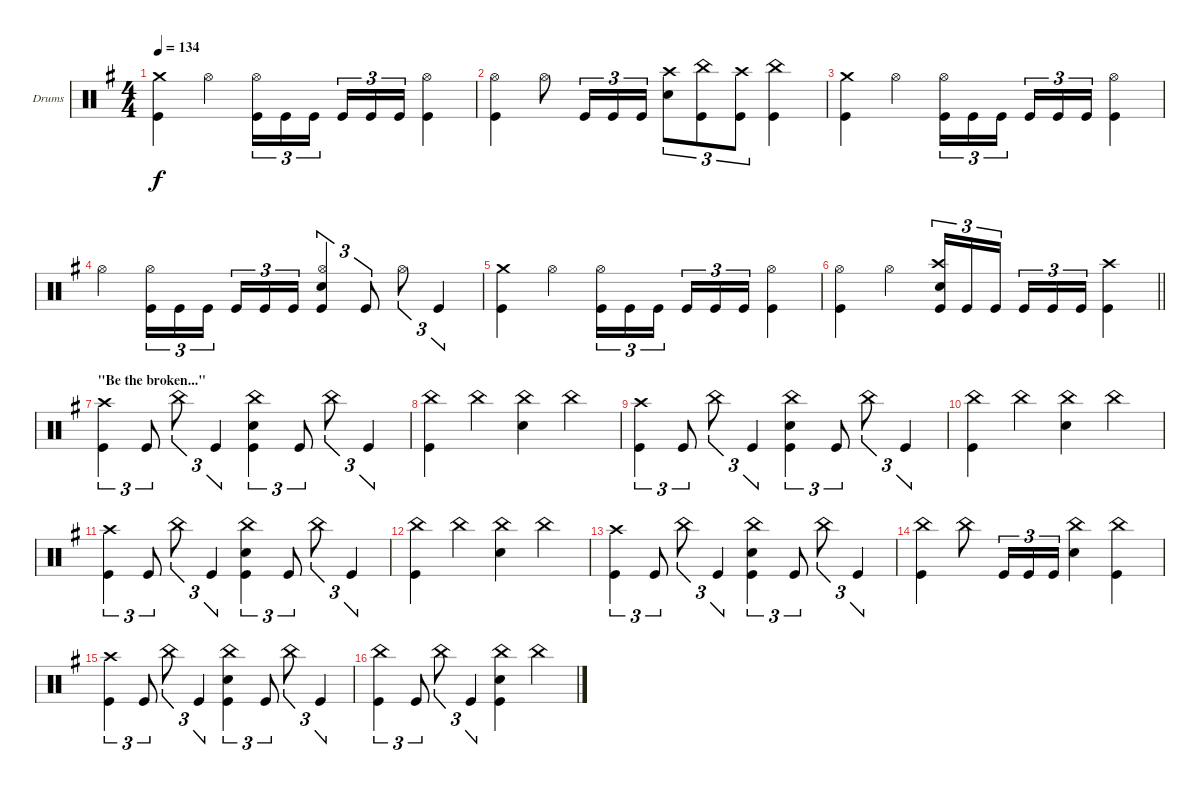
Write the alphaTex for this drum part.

\bracketExtendMode groupsimilarinstruments
\firstSystemTrackNameOrientation horizontal
\otherSystemsTrackNameOrientation horizontal
\track ("Drumkit" "Drums") {instrument percussion}
\staff {score}
\articulation defaults
\ts (4 4)
\tempo 134
\clef neutral
\scale
0.470852
\ks g
("Crash medium (hit)" "Kick (hit)").4{dy f} "Hi-Hat (open)".4 ("Hi-Hat (open)" "Kick (hit)").16{tu (3 2)} "Kick (hit)".16{tu (3 2)} "Kick (hit)".16{tu (3 2)} "Kick (hit)".16{tu (3 2)} "Kick (hit)".16{tu (3 2)} "Kick (hit)".16{tu (3 2)} ("Hi-Hat (open)" "Kick (hit)").4 |
\scale
0.505882 ("Hi-Hat (open)" "Kick (hit)").4 "Hi-Hat (open)".8 "Kick (hit)".16{tu (3 2)} "Kick (hit)".16{tu (3 2)} "Kick (hit)".16{tu (3 2)} ("Crash high (hit)" "Snare (hit) 2").8{tu (3 2)} ("China (hit)" "Kick (hit)").8{tu (3 2)} ("Crash high (hit)" "Kick (hit)").8{tu (3 2)} ("China (hit)" "Kick (hit)").4 |
\scale
0.494118 ("Crash medium (hit)" "Kick (hit)").4 "Hi-Hat (open)".4 ("Hi-Hat (open)" "Kick (hit)").16{tu (3 2)} "Kick (hit)".16{tu (3 2)} "Kick (hit)".16{tu (3 2)} "Kick (hit)".16{tu (3 2)} "Kick (hit)".16{tu (3 2)} "Kick (hit)".16{tu (3 2)} ("Hi-Hat (open)" "Kick (hit)").4 |
\scale
0.529148 "Hi-Hat (open)".4 ("Hi-Hat (open)" "Kick (hit)").16{tu (3 2)} "Kick (hit)".16{tu (3 2)} "Kick (hit)".16{tu (3 2)} "Kick (hit)".16{tu (3 2)} "Kick (hit)".16{tu (3 2)} "Kick (hit)".16{tu (3 2)} ("Hi-Hat (open)" "Snare (hit) 2" "Kick (hit)").4{tu (3 2)} "Kick (hit)".8{tu (3 2)} "Hi-Hat (open)".8{tu (3 2)} "Kick (hit)".4{tu (3 2)} |
\scale
0.470852 ("Crash medium (hit)" "Kick (hit)").4 "Hi-Hat (open)".4 ("Hi-Hat (open)" "Kick (hit)").16{tu (3 2)} "Kick (hit)".16{tu (3 2)} "Kick (hit)".16{tu (3 2)} "Kick (hit)".16{tu (3 2)} "Kick (hit)".16{tu (3 2)} "Kick (hit)".16{tu (3 2)} ("Hi-Hat (open)" "Kick (hit)").4 |
\scale
0.527638
\barLineRight lightlight
("Hi-Hat (open)" "Kick (hit)").4 "Hi-Hat (open)".4 ("Crash high (hit)" "Snare (hit) 2" "Kick (hit)").16{tu (3 2)} "Kick (hit)".16{tu (3 2)} "Kick (hit)".16{tu (3 2)} "Kick (hit)".16{tu (3 2)} "Kick (hit)".16{tu (3 2)} "Kick (hit)".16{tu (3 2)} ("Crash high (hit)" "Kick (hit)").4 |
\section ("" "\"Be the broken...\"")
\scale
0.472362 ("Crash high (hit)" "Kick (hit)").4{tu (3 2)} "Kick (hit)".8{tu (3 2)} "China (hit)".8{tu (3 2)} "Kick (hit)".4{tu (3 2)} ("China (hit)" "Snare (hit) 2" "Kick (hit)").4{tu (3 2)} "Kick (hit)".8{tu (3 2)} "China (hit)".8{tu (3 2)} "Kick (hit)".4{tu (3 2)} |
\scale
0.38961 ("China (hit)" "Kick (hit)").4 "China (hit)".4 ("China (hit)" "Snare (hit) 2").4 "China (hit)".4 |
\scale
0.61039 ("Crash high (hit)" "Kick (hit)").4{tu (3 2)} "Kick (hit)".8{tu (3 2)} "China (hit)".8{tu (3 2)} "Kick (hit)".4{tu (3 2)} ("China (hit)" "Snare (hit) 2" "Kick (hit)").4{tu (3 2)} "Kick (hit)".8{tu (3 2)} "China (hit)".8{tu (3 2)} "Kick (hit)".4{tu (3 2)} |
\scale
0.38961 ("China (hit)" "Kick (hit)").4 "China (hit)".4 ("China (hit)" "Snare (hit) 2").4 "China (hit)".4 |
\scale
0.61039 ("Crash high (hit)" "Kick (hit)").4{tu (3 2)} "Kick (hit)".8{tu (3 2)} "China (hit)".8{tu (3 2)} "Kick (hit)".4{tu (3 2)} ("China (hit)" "Snare (hit) 2" "Kick (hit)").4{tu (3 2)} "Kick (hit)".8{tu (3 2)} "China (hit)".8{tu (3 2)} "Kick (hit)".4{tu (3 2)} |
\scale
0.38961 ("China (hit)" "Kick (hit)").4 "China (hit)".4 ("China (hit)" "Snare (hit) 2").4 "China (hit)".4 |
\scale
0.61039 ("Crash high (hit)" "Kick (hit)").4{tu (3 2)} "Kick (hit)".8{tu (3 2)} "China (hit)".8{tu (3 2)} "Kick (hit)".4{tu (3 2)} ("China (hit)" "Snare (hit) 2" "Kick (hit)").4{tu (3 2)} "Kick (hit)".8{tu (3 2)} "China (hit)".8{tu (3 2)} "Kick (hit)".4{tu (3 2)} |
\scale
0.505263 ("China (hit)" "Kick (hit)").4 "China (hit)".8 "Kick (hit)".16{tu (3 2)} "Kick (hit)".16{tu (3 2)} "Kick (hit)".16{tu (3 2)} ("China (hit)" "Snare (hit) 2").4 ("China (hit)" "Kick (hit)").4 |
\scale
0.494737 ("Crash high (hit)" "Kick (hit)").4{tu (3 2)} "Kick (hit)".8{tu (3 2)} "China (hit)".8{tu (3 2)} "Kick (hit)".4{tu (3 2)} ("China (hit)" "Snare (hit) 2" "Kick (hit)").4{tu (3 2)} "Kick (hit)".8{tu (3 2)} "China (hit)".8{tu (3 2)} "Kick (hit)".4{tu (3 2)} |
\scale
0.468927 ("China (hit)" "Kick (hit)").4{tu (3 2)} "Kick (hit)".8{tu (3 2)} "China (hit)".8{tu (3 2)} "Kick (hit)".4{tu (3 2)} ("China (hit)" "Snare (hit) 2" "Kick (hit)").4 "China (hit)".4
